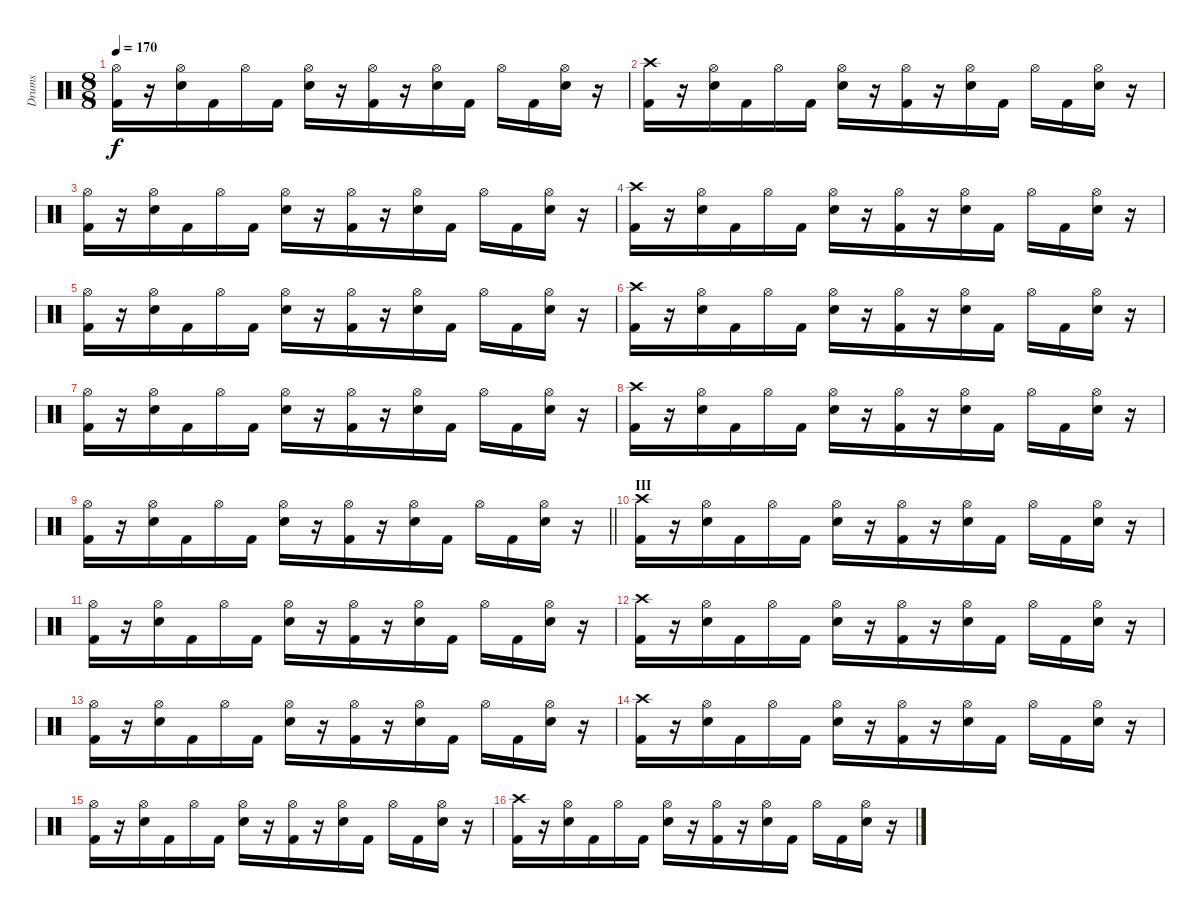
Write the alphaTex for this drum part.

\track ("Drums" "Drums") {mute instrument percussion}
\staff {score}
\articulation defaults
\ts (8 8)
\tempo 170
\clef neutral
\ks c
("Hi-Hat (open)" "Kick (hit) 2").16{dy f} r.16 ("Hi-Hat (open)" "Snare (hit) 2").16 "Kick (hit) 2".16 "Hi-Hat (open)".16 "Kick (hit) 2".16 ("Hi-Hat (open)" "Snare (hit) 2").16 r.16 ("Hi-Hat (open)" "Kick (hit) 2").16 r.16 ("Hi-Hat (open)" "Snare (hit) 2").16 "Kick (hit) 2".16 "Hi-Hat (open)".16 "Kick (hit) 2".16 ("Hi-Hat (open)" "Snare (hit) 2").16 r.16 |
("Crash high (hit)" "Kick (hit) 2").16 r.16 ("Hi-Hat (open)" "Snare (hit) 2").16 "Kick (hit) 2".16 "Hi-Hat (open)".16 "Kick (hit) 2".16 ("Hi-Hat (open)" "Snare (hit) 2").16 r.16 ("Hi-Hat (open)" "Kick (hit) 2").16 r.16 ("Hi-Hat (open)" "Snare (hit) 2").16 "Kick (hit) 2".16 "Hi-Hat (open)".16 "Kick (hit) 2".16 ("Hi-Hat (open)" "Snare (hit) 2").16 r.16 |
("Hi-Hat (open)" "Kick (hit) 2").16 r.16 ("Hi-Hat (open)" "Snare (hit) 2").16 "Kick (hit) 2".16 "Hi-Hat (open)".16 "Kick (hit) 2".16 ("Hi-Hat (open)" "Snare (hit) 2").16 r.16 ("Hi-Hat (open)" "Kick (hit) 2").16 r.16 ("Hi-Hat (open)" "Snare (hit) 2").16 "Kick (hit) 2".16 "Hi-Hat (open)".16 "Kick (hit) 2".16 ("Hi-Hat (open)" "Snare (hit) 2").16 r.16 |
("Crash high (hit)" "Kick (hit) 2").16 r.16 ("Hi-Hat (open)" "Snare (hit) 2").16 "Kick (hit) 2".16 "Hi-Hat (open)".16 "Kick (hit) 2".16 ("Hi-Hat (open)" "Snare (hit) 2").16 r.16 ("Hi-Hat (open)" "Kick (hit) 2").16 r.16 ("Hi-Hat (open)" "Snare (hit) 2").16 "Kick (hit) 2".16 "Hi-Hat (open)".16 "Kick (hit) 2".16 ("Hi-Hat (open)" "Snare (hit) 2").16 r.16 |
("Hi-Hat (open)" "Kick (hit) 2").16 r.16 ("Hi-Hat (open)" "Snare (hit) 2").16 "Kick (hit) 2".16 "Hi-Hat (open)".16 "Kick (hit) 2".16 ("Hi-Hat (open)" "Snare (hit) 2").16 r.16 ("Hi-Hat (open)" "Kick (hit) 2").16 r.16 ("Hi-Hat (open)" "Snare (hit) 2").16 "Kick (hit) 2".16 "Hi-Hat (open)".16 "Kick (hit) 2".16 ("Hi-Hat (open)" "Snare (hit) 2").16 r.16 |
("Crash high (hit)" "Kick (hit) 2").16 r.16 ("Hi-Hat (open)" "Snare (hit) 2").16 "Kick (hit) 2".16 "Hi-Hat (open)".16 "Kick (hit) 2".16 ("Hi-Hat (open)" "Snare (hit) 2").16 r.16 ("Hi-Hat (open)" "Kick (hit) 2").16 r.16 ("Hi-Hat (open)" "Snare (hit) 2").16 "Kick (hit) 2".16 "Hi-Hat (open)".16 "Kick (hit) 2".16 ("Hi-Hat (open)" "Snare (hit) 2").16 r.16 |
("Hi-Hat (open)" "Kick (hit) 2").16 r.16 ("Hi-Hat (open)" "Snare (hit) 2").16 "Kick (hit) 2".16 "Hi-Hat (open)".16 "Kick (hit) 2".16 ("Hi-Hat (open)" "Snare (hit) 2").16 r.16 ("Hi-Hat (open)" "Kick (hit) 2").16 r.16 ("Hi-Hat (open)" "Snare (hit) 2").16 "Kick (hit) 2".16 "Hi-Hat (open)".16 "Kick (hit) 2".16 ("Hi-Hat (open)" "Snare (hit) 2").16 r.16 |
("Crash high (hit)" "Kick (hit) 2").16 r.16 ("Hi-Hat (open)" "Snare (hit) 2").16 "Kick (hit) 2".16 "Hi-Hat (open)".16 "Kick (hit) 2".16 ("Hi-Hat (open)" "Snare (hit) 2").16 r.16 ("Hi-Hat (open)" "Kick (hit) 2").16 r.16 ("Hi-Hat (open)" "Snare (hit) 2").16 "Kick (hit) 2".16 "Hi-Hat (open)".16 "Kick (hit) 2".16 ("Hi-Hat (open)" "Snare (hit) 2").16 r.16 |
\barLineRight lightlight
("Hi-Hat (open)" "Kick (hit) 2").16 r.16 ("Hi-Hat (open)" "Snare (hit) 2").16 "Kick (hit) 2".16 "Hi-Hat (open)".16 "Kick (hit) 2".16 ("Hi-Hat (open)" "Snare (hit) 2").16 r.16 ("Hi-Hat (open)" "Kick (hit) 2").16 r.16 ("Hi-Hat (open)" "Snare (hit) 2").16 "Kick (hit) 2".16 "Hi-Hat (open)".16 "Kick (hit) 2".16 ("Hi-Hat (open)" "Snare (hit) 2").16 r.16 |
\section ("" "III")
("Crash high (hit)" "Kick (hit) 2").16 r.16 ("Hi-Hat (open)" "Snare (hit) 2").16 "Kick (hit) 2".16 "Hi-Hat (open)".16 "Kick (hit) 2".16 ("Hi-Hat (open)" "Snare (hit) 2").16 r.16 ("Hi-Hat (open)" "Kick (hit) 2").16 r.16 ("Hi-Hat (open)" "Snare (hit) 2").16 "Kick (hit) 2".16 "Hi-Hat (open)".16 "Kick (hit) 2".16 ("Hi-Hat (open)" "Snare (hit) 2").16 r.16 |
("Hi-Hat (open)" "Kick (hit) 2").16 r.16 ("Hi-Hat (open)" "Snare (hit) 2").16 "Kick (hit) 2".16 "Hi-Hat (open)".16 "Kick (hit) 2".16 ("Hi-Hat (open)" "Snare (hit) 2").16 r.16 ("Hi-Hat (open)" "Kick (hit) 2").16 r.16 ("Hi-Hat (open)" "Snare (hit) 2").16 "Kick (hit) 2".16 "Hi-Hat (open)".16 "Kick (hit) 2".16 ("Hi-Hat (open)" "Snare (hit) 2").16 r.16 |
("Crash high (hit)" "Kick (hit) 2").16 r.16 ("Hi-Hat (open)" "Snare (hit) 2").16 "Kick (hit) 2".16 "Hi-Hat (open)".16 "Kick (hit) 2".16 ("Hi-Hat (open)" "Snare (hit) 2").16 r.16 ("Hi-Hat (open)" "Kick (hit) 2").16 r.16 ("Hi-Hat (open)" "Snare (hit) 2").16 "Kick (hit) 2".16 "Hi-Hat (open)".16 "Kick (hit) 2".16 ("Hi-Hat (open)" "Snare (hit) 2").16 r.16 |
("Hi-Hat (open)" "Kick (hit) 2").16 r.16 ("Hi-Hat (open)" "Snare (hit) 2").16 "Kick (hit) 2".16 "Hi-Hat (open)".16 "Kick (hit) 2".16 ("Hi-Hat (open)" "Snare (hit) 2").16 r.16 ("Hi-Hat (open)" "Kick (hit) 2").16 r.16 ("Hi-Hat (open)" "Snare (hit) 2").16 "Kick (hit) 2".16 "Hi-Hat (open)".16 "Kick (hit) 2".16 ("Hi-Hat (open)" "Snare (hit) 2").16 r.16 |
("Crash high (hit)" "Kick (hit) 2").16 r.16 ("Hi-Hat (open)" "Snare (hit) 2").16 "Kick (hit) 2".16 "Hi-Hat (open)".16 "Kick (hit) 2".16 ("Hi-Hat (open)" "Snare (hit) 2").16 r.16 ("Hi-Hat (open)" "Kick (hit) 2").16 r.16 ("Hi-Hat (open)" "Snare (hit) 2").16 "Kick (hit) 2".16 "Hi-Hat (open)".16 "Kick (hit) 2".16 ("Hi-Hat (open)" "Snare (hit) 2").16 r.16 |
("Hi-Hat (open)" "Kick (hit) 2").16 r.16 ("Hi-Hat (open)" "Snare (hit) 2").16 "Kick (hit) 2".16 "Hi-Hat (open)".16 "Kick (hit) 2".16 ("Hi-Hat (open)" "Snare (hit) 2").16 r.16 ("Hi-Hat (open)" "Kick (hit) 2").16 r.16 ("Hi-Hat (open)" "Snare (hit) 2").16 "Kick (hit) 2".16 "Hi-Hat (open)".16 "Kick (hit) 2".16 ("Hi-Hat (open)" "Snare (hit) 2").16 r.16 |
("Crash high (hit)" "Kick (hit) 2").16 r.16 ("Hi-Hat (open)" "Snare (hit) 2").16 "Kick (hit) 2".16 "Hi-Hat (open)".16 "Kick (hit) 2".16 ("Hi-Hat (open)" "Snare (hit) 2").16 r.16 ("Hi-Hat (open)" "Kick (hit) 2").16 r.16 ("Hi-Hat (open)" "Snare (hit) 2").16 "Kick (hit) 2".16 "Hi-Hat (open)".16 "Kick (hit) 2".16 ("Hi-Hat (open)" "Snare (hit) 2").16 r.16
